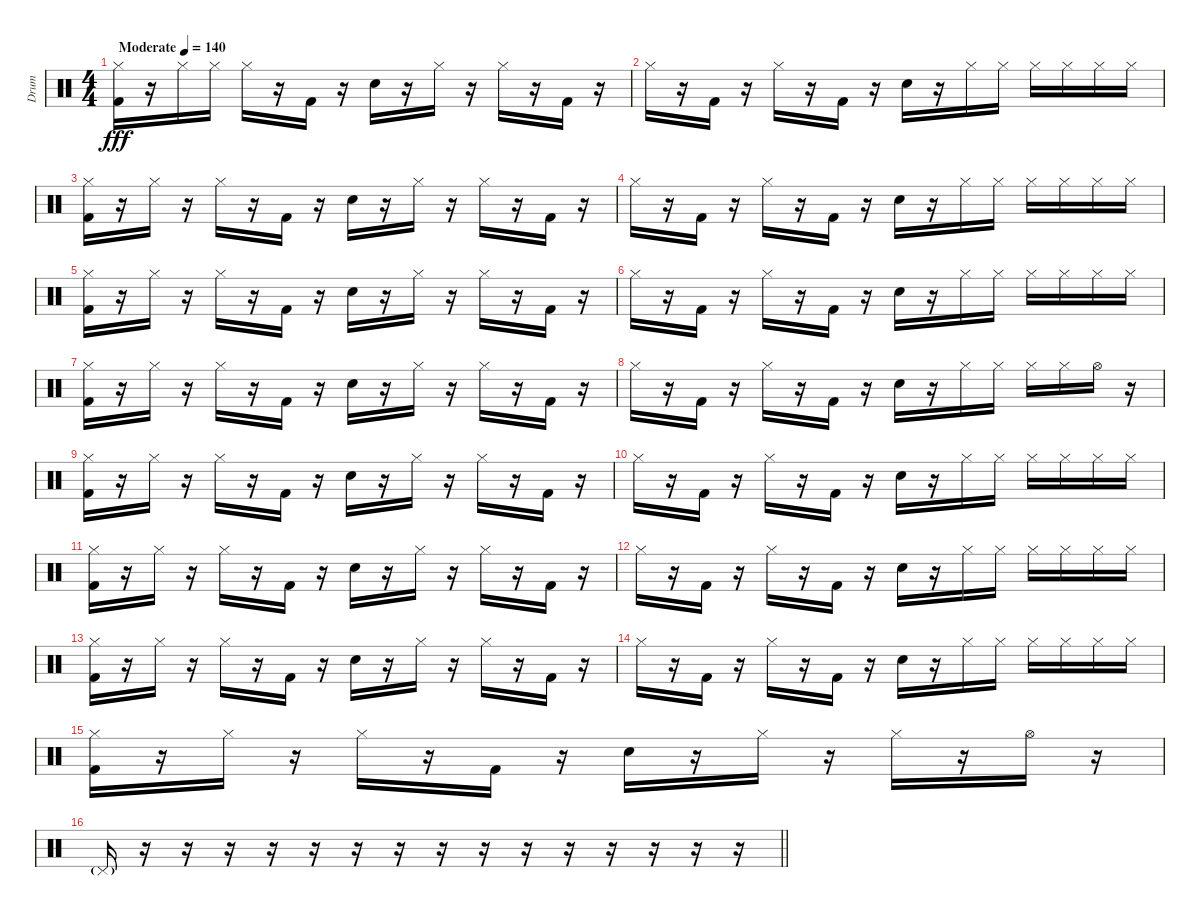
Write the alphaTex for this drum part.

\track ("Drum" "Drum") {instrument percussion}
\staff {score}
\articulation defaults
\ts (4 4)
\tempo (140 "Moderate")
\clef neutral
\ks c
("Hi-Hat (closed)" "Kick (hit) 2").16{dy fff} r.16 "Hi-Hat (closed)".16 "Hi-Hat (closed)".16 "Hi-Hat (closed)".16 r.16 "Kick (hit) 2".16 r.16 "Electric Snare (hit)".16 r.16 "Hi-Hat (closed)".16 r.16 "Hi-Hat (closed)".16 r.16 "Kick (hit) 2".16 r.16 |
"Hi-Hat (closed)".16 r.16 "Kick (hit) 2".16 r.16 "Hi-Hat (closed)".16 r.16 "Kick (hit) 2".16 r.16 "Electric Snare (hit)".16 r.16 "Hi-Hat (closed)".16 "Hi-Hat (closed)".16 "Hi-Hat (closed)".16 "Hi-Hat (closed)".16 "Hi-Hat (closed)".16 "Hi-Hat (closed)".16 |
("Hi-Hat (closed)" "Kick (hit) 2").16 r.16 "Hi-Hat (closed)".16 r.16 "Hi-Hat (closed)".16 r.16 "Kick (hit) 2".16 r.16 "Electric Snare (hit)".16 r.16 "Hi-Hat (closed)".16 r.16 "Hi-Hat (closed)".16 r.16 "Kick (hit) 2".16 r.16 |
"Hi-Hat (closed)".16 r.16 "Kick (hit) 2".16 r.16 "Hi-Hat (closed)".16 r.16 "Kick (hit) 2".16 r.16 "Electric Snare (hit)".16 r.16 "Hi-Hat (closed)".16 "Hi-Hat (closed)".16 "Hi-Hat (closed)".16 "Hi-Hat (closed)".16 "Hi-Hat (closed)".16 "Hi-Hat (closed)".16 |
("Hi-Hat (closed)" "Kick (hit) 2").16 r.16 "Hi-Hat (closed)".16 r.16 "Hi-Hat (closed)".16 r.16 "Kick (hit) 2".16 r.16 "Electric Snare (hit)".16 r.16 "Hi-Hat (closed)".16 r.16 "Hi-Hat (closed)".16 r.16 "Kick (hit) 2".16 r.16 |
"Hi-Hat (closed)".16 r.16 "Kick (hit) 2".16 r.16 "Hi-Hat (closed)".16 r.16 "Kick (hit) 2".16 r.16 "Electric Snare (hit)".16 r.16 "Hi-Hat (closed)".16 "Hi-Hat (closed)".16 "Hi-Hat (closed)".16 "Hi-Hat (closed)".16 "Hi-Hat (closed)".16 "Hi-Hat (closed)".16 |
("Hi-Hat (closed)" "Kick (hit) 2").16 r.16 "Hi-Hat (closed)".16 r.16 "Hi-Hat (closed)".16 r.16 "Kick (hit) 2".16 r.16 "Electric Snare (hit)".16 r.16 "Hi-Hat (closed)".16 r.16 "Hi-Hat (closed)".16 r.16 "Kick (hit) 2".16 r.16 |
"Hi-Hat (closed)".16 r.16 "Kick (hit) 2".16 r.16 "Hi-Hat (closed)".16 r.16 "Kick (hit) 2".16 r.16 "Electric Snare (hit)".16 r.16 "Hi-Hat (closed)".16 "Hi-Hat (closed)".16 "Hi-Hat (closed)".16 "Hi-Hat (closed)".16 "Hi-Hat (open)".16 r.16 |
("Hi-Hat (closed)" "Kick (hit) 2").16 r.16 "Hi-Hat (closed)".16 r.16 "Hi-Hat (closed)".16 r.16 "Kick (hit) 2".16 r.16 "Electric Snare (hit)".16 r.16 "Hi-Hat (closed)".16 r.16 "Hi-Hat (closed)".16 r.16 "Kick (hit) 2".16 r.16 |
"Hi-Hat (closed)".16 r.16 "Kick (hit) 2".16 r.16 "Hi-Hat (closed)".16 r.16 "Kick (hit) 2".16 r.16 "Electric Snare (hit)".16 r.16 "Hi-Hat (closed)".16 "Hi-Hat (closed)".16 "Hi-Hat (closed)".16 "Hi-Hat (closed)".16 "Hi-Hat (closed)".16 "Hi-Hat (closed)".16 |
("Hi-Hat (closed)" "Kick (hit) 2").16 r.16 "Hi-Hat (closed)".16 r.16 "Hi-Hat (closed)".16 r.16 "Kick (hit) 2".16 r.16 "Electric Snare (hit)".16 r.16 "Hi-Hat (closed)".16 r.16 "Hi-Hat (closed)".16 r.16 "Kick (hit) 2".16 r.16 |
"Hi-Hat (closed)".16 r.16 "Kick (hit) 2".16 r.16 "Hi-Hat (closed)".16 r.16 "Kick (hit) 2".16 r.16 "Electric Snare (hit)".16 r.16 "Hi-Hat (closed)".16 "Hi-Hat (closed)".16 "Hi-Hat (closed)".16 "Hi-Hat (closed)".16 "Hi-Hat (closed)".16 "Hi-Hat (closed)".16 |
("Hi-Hat (closed)" "Kick (hit) 2").16 r.16 "Hi-Hat (closed)".16 r.16 "Hi-Hat (closed)".16 r.16 "Kick (hit) 2".16 r.16 "Electric Snare (hit)".16 r.16 "Hi-Hat (closed)".16 r.16 "Hi-Hat (closed)".16 r.16 "Kick (hit) 2".16 r.16 |
"Hi-Hat (closed)".16 r.16 "Kick (hit) 2".16 r.16 "Hi-Hat (closed)".16 r.16 "Kick (hit) 2".16 r.16 "Electric Snare (hit)".16 r.16 "Hi-Hat (closed)".16 "Hi-Hat (closed)".16 "Hi-Hat (closed)".16 "Hi-Hat (closed)".16 "Hi-Hat (closed)".16 "Hi-Hat (closed)".16 |
("Hi-Hat (closed)" "Kick (hit) 2").16 r.16 "Hi-Hat (closed)".16 r.16 "Hi-Hat (closed)".16 r.16 "Kick (hit) 2".16 r.16 "Electric Snare (hit)".16 r.16 "Hi-Hat (closed)".16 r.16 "Hi-Hat (closed)".16 r.16 "Hi-Hat (open)".16 r.16 |
\barLineRight lightlight "Pedal Hi-Hat (hit)"{g}.16
r.16 r.16 r.16 r.16 r.16 r.16 r.16 r.16 r.16 r.16 r.16 r.16 r.16 r.16 r.16
